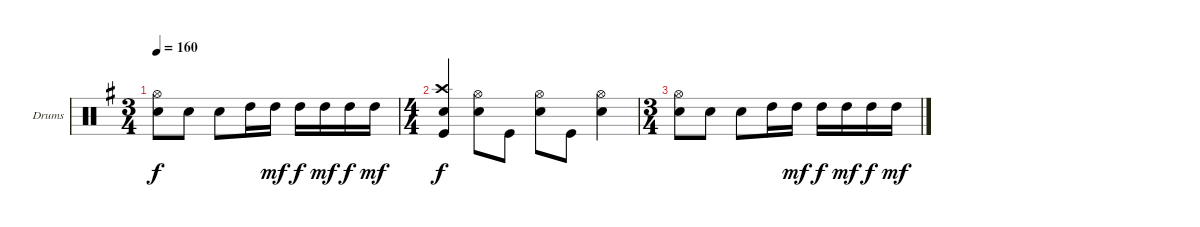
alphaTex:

\defaultSystemsLayout 4
\bracketExtendMode groupsimilarinstruments
\firstSystemTrackNameOrientation horizontal
\otherSystemsTrackNameOrientation horizontal
\track ("Drumkit" "Drums") {instrument percussion}
\staff {score}
\articulation defaults
\ts (3 4)
\tempo 160
\clef neutral
\scale
1.07314
\ks g
("Hi-Hat (open)" "Snare (hit) 2").8{dy f} "Snare (hit) 2".8 "Snare (hit) 2".8 "High Tom (hit)".16 "High Tom (hit)".16{dy mf} "High Tom (hit)".16{dy f} "High Tom (hit)".16{dy mf} "High Tom (hit)".16{dy f} "High Tom (hit)".16{dy mf} |
\ts (4 4)
\scale
0.92686 ("Crash high (hit)" "Snare (hit) 2" "Kick (hit)").4{dy f} ("Hi-Hat (open)" "Snare (hit) 2").8 "Kick (hit)".8 ("Hi-Hat (open)" "Snare (hit) 2").8 "Kick (hit)".8 ("Hi-Hat (open)" "Snare (hit) 2").4 |
\ts (3 4)
\scale
1.07314 ("Hi-Hat (open)" "Snare (hit) 2").8 "Snare (hit) 2".8 "Snare (hit) 2".8 "High Tom (hit)".16 "High Tom (hit)".16{dy mf} "High Tom (hit)".16{dy f} "High Tom (hit)".16{dy mf} "High Tom (hit)".16{dy f} "High Tom (hit)".16{dy mf} |
\scale
0.92686
